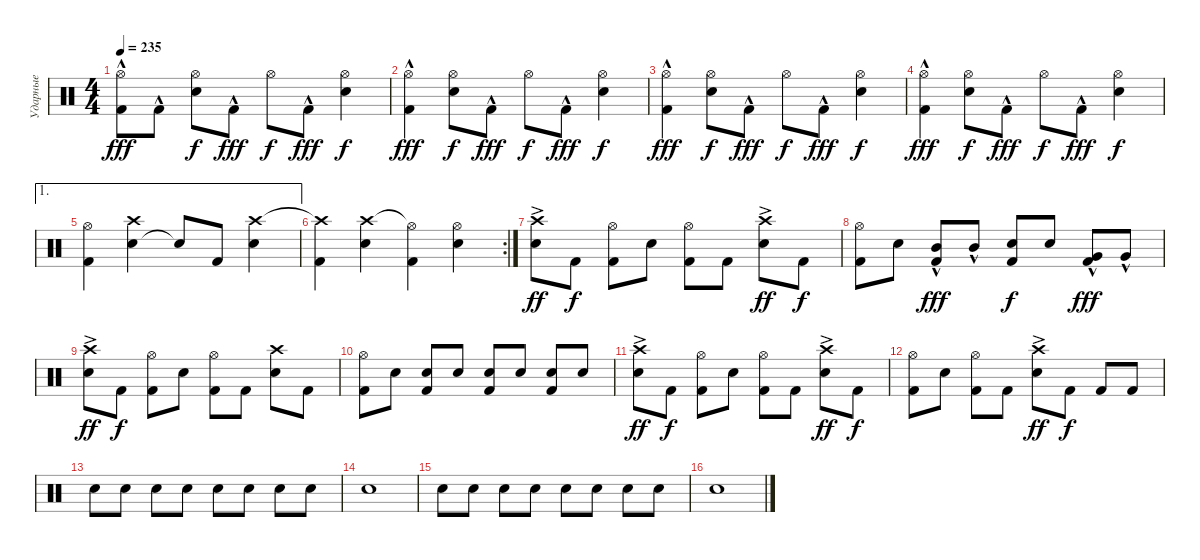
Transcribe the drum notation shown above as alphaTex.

\track ("Ударные" "Ударные") {instrument percussion}
\staff {score}
\articulation defaults
\ts (4 4)
\tempo 235
\clef neutral
\ks c
("Kick (hit) 2"{hac} "Hi-Hat (open)").8{dy fff} "Kick (hit) 2"{hac}.8 ("Snare (hit) 2" "Hi-Hat (open)").8{dy f} "Kick (hit) 2"{hac}.8{dy fff} "Hi-Hat (open)".8{dy f} "Kick (hit) 2"{hac}.8{dy fff} ("Snare (hit) 2" "Hi-Hat (open)").4{dy f} |
("Kick (hit) 2"{hac} "Hi-Hat (open)").4{dy fff} ("Snare (hit) 2" "Hi-Hat (open)").8{dy f} "Kick (hit) 2"{hac}.8{dy fff} "Hi-Hat (open)".8{dy f} "Kick (hit) 2"{hac}.8{dy fff} ("Snare (hit) 2" "Hi-Hat (open)").4{dy f} |
("Kick (hit) 2"{hac} "Hi-Hat (open)").4{dy fff} ("Snare (hit) 2" "Hi-Hat (open)").8{dy f} "Kick (hit) 2"{hac}.8{dy fff} "Hi-Hat (open)".8{dy f} "Kick (hit) 2"{hac}.8{dy fff} ("Snare (hit) 2" "Hi-Hat (open)").4{dy f} |
("Kick (hit) 2"{hac} "Hi-Hat (open)").4{dy fff} ("Snare (hit) 2" "Hi-Hat (open)").8{dy f} "Kick (hit) 2"{hac}.8{dy fff} "Hi-Hat (open)".8{dy f} "Kick (hit) 2"{hac}.8{dy fff} ("Snare (hit) 2" "Hi-Hat (open)").4{dy f} |
\ae 1
("Kick (hit) 2" "Hi-Hat (open)").4 ("Snare (hit) 2" "Crash high (hit)").4 "Snare (hit)"{t}.8 "Kick (hit) 2".8 ("Snare (hit) 2" "Crash high (hit)").4 |
\rc 2
("Kick (hit) 2" "Crash high (hit)"{t}).4 ("Snare (hit) 2" "Crash high (hit)").4 ("Kick (hit) 2" "Hi-Hat (open)"{t}).4 ("Snare (hit) 2" "Hi-Hat (open)").4 |
("Snare (hit) 2" "Crash high (hit)"{ac}).8{dy ff} "Kick (hit) 2".8{dy f} ("Kick (hit) 2" "Hi-Hat (open)").8 "Snare (hit) 2".8 ("Kick (hit) 2" "Hi-Hat (open)").8 "Kick (hit) 2".8 ("Snare (hit) 2" "Crash high (hit)"{ac}).8{dy ff} "Kick (hit) 2".8{dy f} |
("Kick (hit) 2" "Hi-Hat (open)").8 "Snare (hit) 2".8 ("Kick (hit) 2" "Mid Tom (hit)"{hac}).8{dy fff} "Mid Tom (hit)"{hac}.8 ("Kick (hit) 2" "Snare (hit) 2").8{dy f} "Snare (hit) 2".8 ("Kick (hit) 2" "Very Low Tom (hit)"{hac}).8{dy fff} "Very Low Tom (hit)"{hac}.8 |
("Snare (hit) 2" "Crash high (hit)"{ac}).8{dy ff} "Kick (hit) 2".8{dy f} ("Kick (hit) 2" "Hi-Hat (open)").8 "Snare (hit) 2".8 ("Kick (hit) 2" "Hi-Hat (open)").8 "Kick (hit) 2".8 ("Snare (hit) 2" "Crash high (hit)").8 "Kick (hit) 2".8 |
("Kick (hit) 2" "Hi-Hat (open)").8 "Snare (hit) 2".8 ("Kick (hit) 2" "Snare (hit) 2").8 "Snare (hit) 2".8 ("Kick (hit) 2" "Snare (hit) 2").8 "Snare (hit) 2".8 ("Kick (hit) 2" "Snare (hit) 2").8 "Snare (hit) 2".8 |
("Snare (hit) 2" "Crash high (hit)"{ac}).8{dy ff} "Kick (hit) 2".8{dy f} ("Kick (hit) 2" "Hi-Hat (open)").8 "Snare (hit) 2".8 ("Kick (hit) 2" "Hi-Hat (open)").8 "Kick (hit) 2".8 ("Snare (hit) 2" "Crash high (hit)"{ac}).8{dy ff} "Kick (hit) 2".8{dy f} |
("Kick (hit) 2" "Hi-Hat (open)").8 "Snare (hit) 2".8 ("Kick (hit) 2" "Hi-Hat (open)").8 "Kick (hit) 2".8 ("Snare (hit) 2" "Crash high (hit)"{ac}).8{dy ff} "Kick (hit) 2".8{dy f} "Kick (hit) 2".8 "Kick (hit) 2".8 |
"Snare (hit) 2".8 "Snare (hit) 2".8 "Snare (hit) 2".8 "Snare (hit) 2".8 "Snare (hit) 2".8 "Snare (hit) 2".8 "Snare (hit) 2".8 "Snare (hit) 2".8 |
"Snare (hit) 2".1 |
"Snare (hit) 2".8 "Snare (hit) 2".8 "Snare (hit) 2".8 "Snare (hit) 2".8 "Snare (hit) 2".8 "Snare (hit) 2".8 "Snare (hit) 2".8 "Snare (hit) 2".8 |
"Snare (hit) 2".1
